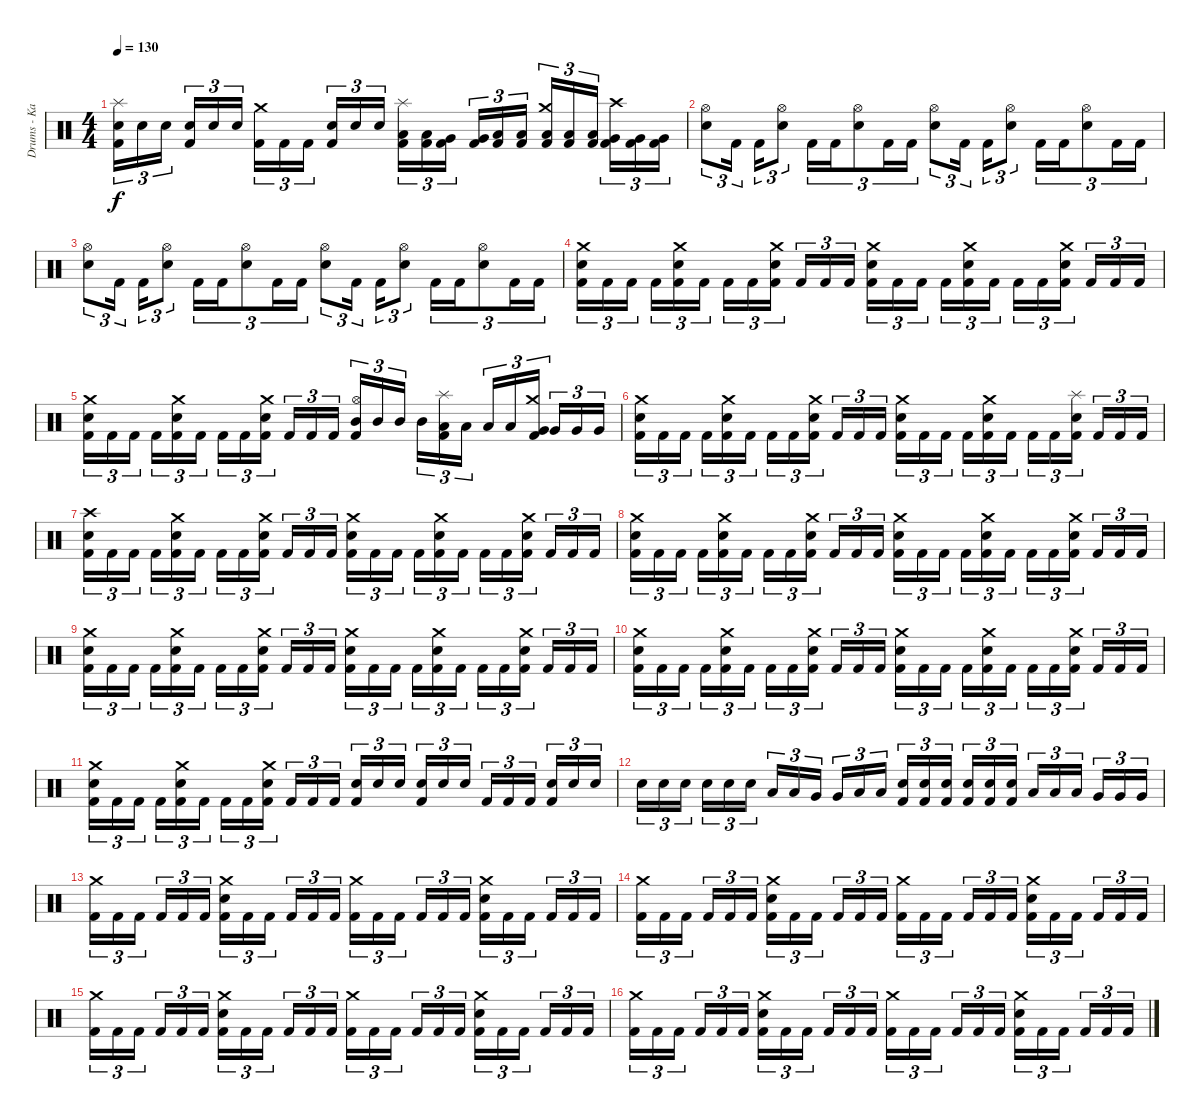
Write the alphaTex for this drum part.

\track ("Drums - Kai Hahto " "Drums - Ka") {instrument percussion}
\staff {score}
\articulation defaults
\ts (4 4)
\tempo 130
\clef neutral
\ks c
("Splash (hit)" "Snare (hit) 2" "Kick (hit) 2").16{tu (3 2) dy f} "Snare (hit) 2".16{tu (3 2)} "Snare (hit) 2".16{tu (3 2) beam splitsecondary} ("Snare (hit) 2" "Kick (hit) 2").16{tu (3 2)} "Snare (hit) 2".16{tu (3 2)} "Snare (hit) 2".16{tu (3 2)} ("Crash medium (hit)" "Kick (hit) 2").16{tu (3 2)} "Kick (hit) 2".16{tu (3 2)} "Kick (hit) 2".16{tu (3 2) beam splitsecondary} ("Snare (hit) 2" "Kick (hit) 2").16{tu (3 2)} "Snare (hit) 2".16{tu (3 2)} "Snare (hit) 2".16{tu (3 2)} ("Splash (hit)" "Low Tom (hit)" "Kick (hit) 2").16{tu (3 2)} ("Low Tom (hit)" "Kick (hit) 2").16{tu (3 2)} ("Very Low Tom (hit)" "Kick (hit) 2").16{tu (3 2) beam splitsecondary} ("Very Low Tom (hit)" "Kick (hit) 2").16{tu (3 2)} ("Low Floor Tom (hit)" "Kick (hit) 2").16{tu (3 2)} ("Low Floor Tom (hit)" "Kick (hit) 2").16{tu (3 2)} ("Crash medium (hit)" "Low Tom (hit)" "Kick (hit) 2").16{tu (3 2)} ("Low Tom (hit)" "Kick (hit) 2").16{tu (3 2)} ("Low Tom (hit)" "Kick (hit) 2").16{tu (3 2) beam splitsecondary} ("Crash high (hit)" "Very Low Tom (hit)" "Kick (hit) 2").16{tu (3 2)} ("Very Low Tom (hit)" "Kick (hit) 2").16{tu (3 2)} ("Very Low Tom (hit)" "Kick (hit) 2").16{tu (3 2)} |
("Hi-Hat (open)" "Snare (hit) 2").8{tu (3 2)} "Kick (hit) 2".16{tu (3 2) beam splitsecondary} "Kick (hit) 2".16{tu (3 2)} ("Hi-Hat (open)" "Snare (hit) 2").8{tu (3 2)} "Kick (hit) 2".16{tu (3 2)} "Kick (hit) 2".16{tu (3 2)} ("Hi-Hat (open)" "Snare (hit) 2").8{tu (3 2)} "Kick (hit) 2".16{tu (3 2)} "Kick (hit) 2".16{tu (3 2)} ("Hi-Hat (open)" "Snare (hit) 2").8{tu (3 2)} "Kick (hit) 2".16{tu (3 2) beam splitsecondary} "Kick (hit) 2".16{tu (3 2)} ("Hi-Hat (open)" "Snare (hit) 2").8{tu (3 2)} "Kick (hit) 2".16{tu (3 2)} "Kick (hit) 2".16{tu (3 2)} ("Hi-Hat (open)" "Snare (hit) 2").8{tu (3 2)} "Kick (hit) 2".16{tu (3 2)} "Kick (hit) 2".16{tu (3 2)} |
("Hi-Hat (open)" "Snare (hit) 2").8{tu (3 2)} "Kick (hit) 2".16{tu (3 2) beam splitsecondary} "Kick (hit) 2".16{tu (3 2)} ("Hi-Hat (open)" "Snare (hit) 2").8{tu (3 2)} "Kick (hit) 2".16{tu (3 2)} "Kick (hit) 2".16{tu (3 2)} ("Hi-Hat (open)" "Snare (hit) 2").8{tu (3 2)} "Kick (hit) 2".16{tu (3 2)} "Kick (hit) 2".16{tu (3 2)} ("Hi-Hat (open)" "Snare (hit) 2").8{tu (3 2)} "Kick (hit) 2".16{tu (3 2) beam splitsecondary} "Kick (hit) 2".16{tu (3 2)} ("Hi-Hat (open)" "Snare (hit) 2").8{tu (3 2)} "Kick (hit) 2".16{tu (3 2)} "Kick (hit) 2".16{tu (3 2)} ("Hi-Hat (open)" "Snare (hit) 2").8{tu (3 2)} "Kick (hit) 2".16{tu (3 2)} "Kick (hit) 2".16{tu (3 2)} |
("Crash medium (hit)" "Snare (hit) 2" "Kick (hit) 2").16{tu (3 2)} "Kick (hit) 2".16{tu (3 2)} "Kick (hit) 2".16{tu (3 2) beam splitsecondary} "Kick (hit) 2".16{tu (3 2)} ("Crash medium (hit)" "Snare (hit) 2" "Kick (hit) 2").16{tu (3 2)} "Kick (hit) 2".16{tu (3 2)} "Kick (hit) 2".16{tu (3 2)} "Kick (hit) 2".16{tu (3 2)} ("Crash medium (hit)" "Snare (hit) 2" "Kick (hit) 2").16{tu (3 2) beam splitsecondary} "Kick (hit) 2".16{tu (3 2)} "Kick (hit) 2".16{tu (3 2)} "Kick (hit) 2".16{tu (3 2)} ("Crash medium (hit)" "Snare (hit) 2" "Kick (hit) 2").16{tu (3 2)} "Kick (hit) 2".16{tu (3 2)} "Kick (hit) 2".16{tu (3 2) beam splitsecondary} "Kick (hit) 2".16{tu (3 2)} ("Crash medium (hit)" "Snare (hit) 2" "Kick (hit) 2").16{tu (3 2)} "Kick (hit) 2".16{tu (3 2)} "Kick (hit) 2".16{tu (3 2)} "Kick (hit) 2".16{tu (3 2)} ("Crash medium (hit)" "Snare (hit) 2" "Kick (hit) 2").16{tu (3 2) beam splitsecondary} "Kick (hit) 2".16{tu (3 2)} "Kick (hit) 2".16{tu (3 2)} "Kick (hit) 2".16{tu (3 2)} |
("Crash medium (hit)" "Snare (hit) 2" "Kick (hit) 2").16{tu (3 2)} "Kick (hit) 2".16{tu (3 2)} "Kick (hit) 2".16{tu (3 2) beam splitsecondary} "Kick (hit) 2".16{tu (3 2)} ("Crash medium (hit)" "Snare (hit) 2" "Kick (hit) 2").16{tu (3 2)} "Kick (hit) 2".16{tu (3 2)} "Kick (hit) 2".16{tu (3 2)} "Kick (hit) 2".16{tu (3 2)} ("Crash medium (hit)" "Snare (hit) 2" "Kick (hit) 2").16{tu (3 2) beam splitsecondary} "Kick (hit) 2".16{tu (3 2)} "Kick (hit) 2".16{tu (3 2)} "Kick (hit) 2".16{tu (3 2)} ("Hi-Hat (open)" "Mid Tom (hit)" "Kick (hit) 2").16{tu (3 2)} "Mid Tom (hit)".16{tu (3 2)} "Mid Tom (hit)".16{tu (3 2) beam splitsecondary} "Mid Tom (hit)".16{tu (3 2)} ("Splash (hit)" "Low Tom (hit)" "Kick (hit) 2").16{tu (3 2)} "Low Tom (hit)".16{tu (3 2)} "Low Tom (hit)".16{tu (3 2)} "Low Tom (hit)".16{tu (3 2)} ("Crash medium (hit)" "Very Low Tom (hit)" "Kick (hit) 2").16{tu (3 2) beam splitsecondary} "Very Low Tom (hit)".16{tu (3 2)} "Very Low Tom (hit)".16{tu (3 2)} "Very Low Tom (hit)".16{tu (3 2)} |
("Crash medium (hit)" "Snare (hit) 2" "Kick (hit) 2").16{tu (3 2)} "Kick (hit) 2".16{tu (3 2)} "Kick (hit) 2".16{tu (3 2) beam splitsecondary} "Kick (hit) 2".16{tu (3 2)} ("Crash medium (hit)" "Snare (hit) 2" "Kick (hit) 2").16{tu (3 2)} "Kick (hit) 2".16{tu (3 2)} "Kick (hit) 2".16{tu (3 2)} "Kick (hit) 2".16{tu (3 2)} ("Crash medium (hit)" "Snare (hit) 2" "Kick (hit) 2").16{tu (3 2) beam splitsecondary} "Kick (hit) 2".16{tu (3 2)} "Kick (hit) 2".16{tu (3 2)} "Kick (hit) 2".16{tu (3 2)} ("Crash medium (hit)" "Snare (hit) 2" "Kick (hit) 2").16{tu (3 2)} "Kick (hit) 2".16{tu (3 2)} "Kick (hit) 2".16{tu (3 2) beam splitsecondary} "Kick (hit) 2".16{tu (3 2)} ("Crash medium (hit)" "Snare (hit) 2" "Kick (hit) 2").16{tu (3 2)} "Kick (hit) 2".16{tu (3 2)} "Kick (hit) 2".16{tu (3 2)} "Kick (hit) 2".16{tu (3 2)} ("Splash (hit)" "Snare (hit) 2" "Kick (hit) 2").16{tu (3 2) beam splitsecondary} "Kick (hit) 2".16{tu (3 2)} "Kick (hit) 2".16{tu (3 2)} "Kick (hit) 2".16{tu (3 2)} |
("Crash high (hit)" "Snare (hit) 2" "Kick (hit) 2").16{tu (3 2)} "Kick (hit) 2".16{tu (3 2)} "Kick (hit) 2".16{tu (3 2) beam splitsecondary} "Kick (hit) 2".16{tu (3 2)} ("Crash medium (hit)" "Snare (hit) 2" "Kick (hit) 2").16{tu (3 2)} "Kick (hit) 2".16{tu (3 2)} "Kick (hit) 2".16{tu (3 2)} "Kick (hit) 2".16{tu (3 2)} ("Crash medium (hit)" "Snare (hit) 2" "Kick (hit) 2").16{tu (3 2) beam splitsecondary} "Kick (hit) 2".16{tu (3 2)} "Kick (hit) 2".16{tu (3 2)} "Kick (hit) 2".16{tu (3 2)} ("Crash medium (hit)" "Snare (hit) 2" "Kick (hit) 2").16{tu (3 2)} "Kick (hit) 2".16{tu (3 2)} "Kick (hit) 2".16{tu (3 2) beam splitsecondary} "Kick (hit) 2".16{tu (3 2)} ("Crash medium (hit)" "Snare (hit) 2" "Kick (hit) 2").16{tu (3 2)} "Kick (hit) 2".16{tu (3 2)} "Kick (hit) 2".16{tu (3 2)} "Kick (hit) 2".16{tu (3 2)} ("Crash medium (hit)" "Snare (hit) 2" "Kick (hit) 2").16{tu (3 2) beam splitsecondary} "Kick (hit) 2".16{tu (3 2)} "Kick (hit) 2".16{tu (3 2)} "Kick (hit) 2".16{tu (3 2)} |
("Crash medium (hit)" "Snare (hit) 2" "Kick (hit) 2").16{tu (3 2)} "Kick (hit) 2".16{tu (3 2)} "Kick (hit) 2".16{tu (3 2) beam splitsecondary} "Kick (hit) 2".16{tu (3 2)} ("Crash medium (hit)" "Snare (hit) 2" "Kick (hit) 2").16{tu (3 2)} "Kick (hit) 2".16{tu (3 2)} "Kick (hit) 2".16{tu (3 2)} "Kick (hit) 2".16{tu (3 2)} ("Crash medium (hit)" "Snare (hit) 2" "Kick (hit) 2").16{tu (3 2) beam splitsecondary} "Kick (hit) 2".16{tu (3 2)} "Kick (hit) 2".16{tu (3 2)} "Kick (hit) 2".16{tu (3 2)} ("Crash medium (hit)" "Snare (hit) 2" "Kick (hit) 2").16{tu (3 2)} "Kick (hit) 2".16{tu (3 2)} "Kick (hit) 2".16{tu (3 2) beam splitsecondary} "Kick (hit) 2".16{tu (3 2)} ("Crash medium (hit)" "Snare (hit) 2" "Kick (hit) 2").16{tu (3 2)} "Kick (hit) 2".16{tu (3 2)} "Kick (hit) 2".16{tu (3 2)} "Kick (hit) 2".16{tu (3 2)} ("Crash medium (hit)" "Snare (hit) 2" "Kick (hit) 2").16{tu (3 2) beam splitsecondary} "Kick (hit) 2".16{tu (3 2)} "Kick (hit) 2".16{tu (3 2)} "Kick (hit) 2".16{tu (3 2)} |
("Crash medium (hit)" "Snare (hit) 2" "Kick (hit) 2").16{tu (3 2)} "Kick (hit) 2".16{tu (3 2)} "Kick (hit) 2".16{tu (3 2) beam splitsecondary} "Kick (hit) 2".16{tu (3 2)} ("Crash medium (hit)" "Snare (hit) 2" "Kick (hit) 2").16{tu (3 2)} "Kick (hit) 2".16{tu (3 2)} "Kick (hit) 2".16{tu (3 2)} "Kick (hit) 2".16{tu (3 2)} ("Crash medium (hit)" "Snare (hit) 2" "Kick (hit) 2").16{tu (3 2) beam splitsecondary} "Kick (hit) 2".16{tu (3 2)} "Kick (hit) 2".16{tu (3 2)} "Kick (hit) 2".16{tu (3 2)} ("Crash medium (hit)" "Snare (hit) 2" "Kick (hit) 2").16{tu (3 2)} "Kick (hit) 2".16{tu (3 2)} "Kick (hit) 2".16{tu (3 2) beam splitsecondary} "Kick (hit) 2".16{tu (3 2)} ("Crash medium (hit)" "Snare (hit) 2" "Kick (hit) 2").16{tu (3 2)} "Kick (hit) 2".16{tu (3 2)} "Kick (hit) 2".16{tu (3 2)} "Kick (hit) 2".16{tu (3 2)} ("Crash medium (hit)" "Snare (hit) 2" "Kick (hit) 2").16{tu (3 2) beam splitsecondary} "Kick (hit) 2".16{tu (3 2)} "Kick (hit) 2".16{tu (3 2)} "Kick (hit) 2".16{tu (3 2)} |
("Crash medium (hit)" "Snare (hit) 2" "Kick (hit) 2").16{tu (3 2)} "Kick (hit) 2".16{tu (3 2)} "Kick (hit) 2".16{tu (3 2) beam splitsecondary} "Kick (hit) 2".16{tu (3 2)} ("Crash medium (hit)" "Snare (hit) 2" "Kick (hit) 2").16{tu (3 2)} "Kick (hit) 2".16{tu (3 2)} "Kick (hit) 2".16{tu (3 2)} "Kick (hit) 2".16{tu (3 2)} ("Crash medium (hit)" "Snare (hit) 2" "Kick (hit) 2").16{tu (3 2) beam splitsecondary} "Kick (hit) 2".16{tu (3 2)} "Kick (hit) 2".16{tu (3 2)} "Kick (hit) 2".16{tu (3 2)} ("Crash medium (hit)" "Snare (hit) 2" "Kick (hit) 2").16{tu (3 2)} "Kick (hit) 2".16{tu (3 2)} "Kick (hit) 2".16{tu (3 2) beam splitsecondary} "Kick (hit) 2".16{tu (3 2)} ("Crash medium (hit)" "Snare (hit) 2" "Kick (hit) 2").16{tu (3 2)} "Kick (hit) 2".16{tu (3 2)} "Kick (hit) 2".16{tu (3 2)} "Kick (hit) 2".16{tu (3 2)} ("Crash medium (hit)" "Snare (hit) 2" "Kick (hit) 2").16{tu (3 2) beam splitsecondary} "Kick (hit) 2".16{tu (3 2)} "Kick (hit) 2".16{tu (3 2)} "Kick (hit) 2".16{tu (3 2)} |
("Crash medium (hit)" "Snare (hit) 2" "Kick (hit) 2").16{tu (3 2)} "Kick (hit) 2".16{tu (3 2)} "Kick (hit) 2".16{tu (3 2) beam splitsecondary} "Kick (hit) 2".16{tu (3 2)} ("Crash medium (hit)" "Snare (hit) 2" "Kick (hit) 2").16{tu (3 2)} "Kick (hit) 2".16{tu (3 2)} "Kick (hit) 2".16{tu (3 2)} "Kick (hit) 2".16{tu (3 2)} ("Crash medium (hit)" "Snare (hit) 2" "Kick (hit) 2").16{tu (3 2) beam splitsecondary} "Kick (hit) 2".16{tu (3 2)} "Kick (hit) 2".16{tu (3 2)} "Kick (hit) 2".16{tu (3 2)} ("Snare (hit) 2" "Kick (hit) 2").16{tu (3 2)} "Snare (hit) 2".16{tu (3 2)} "Snare (hit) 2".16{tu (3 2) beam splitsecondary} ("Snare (hit) 2" "Kick (hit) 2").16{tu (3 2)} "Snare (hit) 2".16{tu (3 2)} "Snare (hit) 2".16{tu (3 2)} "Kick (hit) 2".16{tu (3 2)} "Kick (hit) 2".16{tu (3 2)} "Kick (hit) 2".16{tu (3 2) beam splitsecondary} ("Snare (hit) 2" "Kick (hit) 2").16{tu (3 2)} "Snare (hit) 2".16{tu (3 2)} "Snare (hit) 2".16{tu (3 2)} |
"Snare (hit) 2".16{tu (3 2)} "Snare (hit) 2".16{tu (3 2)} "Snare (hit) 2".16{tu (3 2) beam splitsecondary} "Snare (hit) 2".16{tu (3 2)} "Snare (hit) 2".16{tu (3 2)} "Snare (hit) 2".16{tu (3 2)} "Low Tom (hit)".16{tu (3 2)} "Low Tom (hit)".16{tu (3 2)} "Very Low Tom (hit)".16{tu (3 2) beam splitsecondary} "Very Low Tom (hit)".16{tu (3 2)} "Low Floor Tom (hit)".16{tu (3 2)} "Low Floor Tom (hit)".16{tu (3 2)} ("Snare (hit) 2" "Kick (hit) 2").16{tu (3 2)} ("Snare (hit) 2" "Kick (hit) 2").16{tu (3 2)} ("Snare (hit) 2" "Kick (hit) 2").16{tu (3 2) beam splitsecondary} ("Snare (hit) 2" "Kick (hit) 2").16{tu (3 2)} ("Snare (hit) 2" "Kick (hit) 2").16{tu (3 2)} ("Snare (hit) 2" "Kick (hit) 2").16{tu (3 2)} "Low Tom (hit)".16{tu (3 2)} "Low Tom (hit)".16{tu (3 2)} "Low Tom (hit)".16{tu (3 2) beam splitsecondary} "Very Low Tom (hit)".16{tu (3 2)} "Very Low Tom (hit)".16{tu (3 2)} "Very Low Tom (hit)".16{tu (3 2)} |
("Crash medium (hit)" "Kick (hit) 2").16{tu (3 2)} "Kick (hit) 2".16{tu (3 2)} "Kick (hit) 2".16{tu (3 2) beam splitsecondary} "Kick (hit) 2".16{tu (3 2)} "Kick (hit) 2".16{tu (3 2)} "Kick (hit) 2".16{tu (3 2)} ("Crash medium (hit)" "Snare (hit) 2" "Kick (hit) 2").16{tu (3 2)} "Kick (hit) 2".16{tu (3 2)} "Kick (hit) 2".16{tu (3 2) beam splitsecondary} "Kick (hit) 2".16{tu (3 2)} "Kick (hit) 2".16{tu (3 2)} "Kick (hit) 2".16{tu (3 2)} ("Crash medium (hit)" "Kick (hit) 2").16{tu (3 2)} "Kick (hit) 2".16{tu (3 2)} "Kick (hit) 2".16{tu (3 2) beam splitsecondary} "Kick (hit) 2".16{tu (3 2)} "Kick (hit) 2".16{tu (3 2)} "Kick (hit) 2".16{tu (3 2)} ("Crash medium (hit)" "Snare (hit) 2" "Kick (hit) 2").16{tu (3 2)} "Kick (hit) 2".16{tu (3 2)} "Kick (hit) 2".16{tu (3 2) beam splitsecondary} "Kick (hit) 2".16{tu (3 2)} "Kick (hit) 2".16{tu (3 2)} "Kick (hit) 2".16{tu (3 2)} |
("Crash medium (hit)" "Kick (hit) 2").16{tu (3 2)} "Kick (hit) 2".16{tu (3 2)} "Kick (hit) 2".16{tu (3 2) beam splitsecondary} "Kick (hit) 2".16{tu (3 2)} "Kick (hit) 2".16{tu (3 2)} "Kick (hit) 2".16{tu (3 2)} ("Crash medium (hit)" "Snare (hit) 2" "Kick (hit) 2").16{tu (3 2)} "Kick (hit) 2".16{tu (3 2)} "Kick (hit) 2".16{tu (3 2) beam splitsecondary} "Kick (hit) 2".16{tu (3 2)} "Kick (hit) 2".16{tu (3 2)} "Kick (hit) 2".16{tu (3 2)} ("Crash medium (hit)" "Kick (hit) 2").16{tu (3 2)} "Kick (hit) 2".16{tu (3 2)} "Kick (hit) 2".16{tu (3 2) beam splitsecondary} "Kick (hit) 2".16{tu (3 2)} "Kick (hit) 2".16{tu (3 2)} "Kick (hit) 2".16{tu (3 2)} ("Crash medium (hit)" "Snare (hit) 2" "Kick (hit) 2").16{tu (3 2)} "Kick (hit) 2".16{tu (3 2)} "Kick (hit) 2".16{tu (3 2) beam splitsecondary} "Kick (hit) 2".16{tu (3 2)} "Kick (hit) 2".16{tu (3 2)} "Kick (hit) 2".16{tu (3 2)} |
("Crash medium (hit)" "Kick (hit) 2").16{tu (3 2)} "Kick (hit) 2".16{tu (3 2)} "Kick (hit) 2".16{tu (3 2) beam splitsecondary} "Kick (hit) 2".16{tu (3 2)} "Kick (hit) 2".16{tu (3 2)} "Kick (hit) 2".16{tu (3 2)} ("Crash medium (hit)" "Snare (hit) 2" "Kick (hit) 2").16{tu (3 2)} "Kick (hit) 2".16{tu (3 2)} "Kick (hit) 2".16{tu (3 2) beam splitsecondary} "Kick (hit) 2".16{tu (3 2)} "Kick (hit) 2".16{tu (3 2)} "Kick (hit) 2".16{tu (3 2)} ("Crash medium (hit)" "Kick (hit) 2").16{tu (3 2)} "Kick (hit) 2".16{tu (3 2)} "Kick (hit) 2".16{tu (3 2) beam splitsecondary} "Kick (hit) 2".16{tu (3 2)} "Kick (hit) 2".16{tu (3 2)} "Kick (hit) 2".16{tu (3 2)} ("Crash medium (hit)" "Snare (hit) 2" "Kick (hit) 2").16{tu (3 2)} "Kick (hit) 2".16{tu (3 2)} "Kick (hit) 2".16{tu (3 2) beam splitsecondary} "Kick (hit) 2".16{tu (3 2)} "Kick (hit) 2".16{tu (3 2)} "Kick (hit) 2".16{tu (3 2)} |
("Crash medium (hit)" "Kick (hit) 2").16{tu (3 2)} "Kick (hit) 2".16{tu (3 2)} "Kick (hit) 2".16{tu (3 2) beam splitsecondary} "Kick (hit) 2".16{tu (3 2)} "Kick (hit) 2".16{tu (3 2)} "Kick (hit) 2".16{tu (3 2)} ("Crash medium (hit)" "Snare (hit) 2" "Kick (hit) 2").16{tu (3 2)} "Kick (hit) 2".16{tu (3 2)} "Kick (hit) 2".16{tu (3 2) beam splitsecondary} "Kick (hit) 2".16{tu (3 2)} "Kick (hit) 2".16{tu (3 2)} "Kick (hit) 2".16{tu (3 2)} ("Crash medium (hit)" "Kick (hit) 2").16{tu (3 2)} "Kick (hit) 2".16{tu (3 2)} "Kick (hit) 2".16{tu (3 2) beam splitsecondary} "Kick (hit) 2".16{tu (3 2)} "Kick (hit) 2".16{tu (3 2)} "Kick (hit) 2".16{tu (3 2)} ("Crash medium (hit)" "Snare (hit) 2" "Kick (hit) 2").16{tu (3 2)} "Kick (hit) 2".16{tu (3 2)} "Kick (hit) 2".16{tu (3 2) beam splitsecondary} "Kick (hit) 2".16{tu (3 2)} "Kick (hit) 2".16{tu (3 2)} "Kick (hit) 2".16{tu (3 2)}
